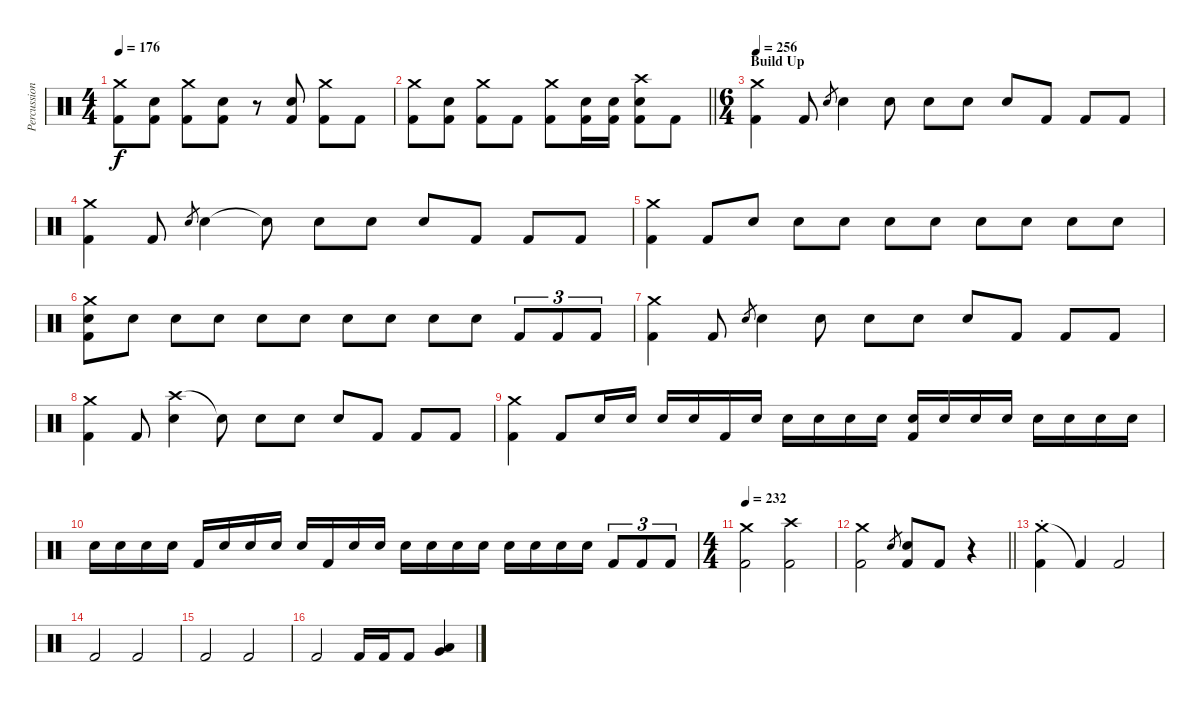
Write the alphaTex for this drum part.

\track ("Percussion" "Percussion") {instrument percussion}
\staff {score}
\articulation defaults
\ts (4 4)
\tempo 176
\clef neutral
\ks c
("Crash medium (hit)" "Kick (hit) 2").8{dy f} ("Electric Snare (hit)" "Kick (hit) 2").8 ("Crash medium (hit)" "Kick (hit) 2").8 ("Electric Snare (hit)" "Kick (hit) 2").8 r.8 ("Electric Snare (hit)" "Kick (hit) 2").8 ("Crash medium (hit)" "Kick (hit) 2").8 "Kick (hit) 2".8 |
\barLineRight lightlight
("Crash medium (hit)" "Kick (hit) 2").8 ("Electric Snare (hit)" "Kick (hit) 2").8 ("Crash medium (hit)" "Kick (hit) 2").8 "Kick (hit) 2".8 ("Crash medium (hit)" "Kick (hit) 2").8 ("Electric Snare (hit)" "Kick (hit) 2").16 ("Electric Snare (hit)" "Kick (hit) 2").16 ("Crash high (hit)" "Electric Snare (hit)" "Kick (hit) 2").8 "Kick (hit) 2".8 |
\ts (6 4)
\section ("" "Build Up")
\tempo 256
("Crash medium (hit)" "Kick (hit) 2").4 "Kick (hit) 2".8 "Electric Snare (hit)".8{gr} "Electric Snare (hit)".4 "Electric Snare (hit)".8 "Electric Snare (hit)".8 "Electric Snare (hit)".8 "Electric Snare (hit)".8 "Kick (hit) 2".8 "Kick (hit) 2".8 "Kick (hit) 2".8 |
("Crash medium (hit)" "Kick (hit) 2").4 "Kick (hit) 2".8 "Electric Snare (hit)".8{gr} "Electric Snare (hit)".4 "Electric Snare (hit)"{t}.8 "Electric Snare (hit)".8 "Electric Snare (hit)".8 "Electric Snare (hit)".8 "Kick (hit) 2".8 "Kick (hit) 2".8 "Kick (hit) 2".8 |
("Crash medium (hit)" "Kick (hit) 2").4 "Kick (hit) 2".8 "Electric Snare (hit)".8 "Electric Snare (hit)".8 "Electric Snare (hit)".8 "Electric Snare (hit)".8 "Electric Snare (hit)".8 "Electric Snare (hit)".8 "Electric Snare (hit)".8 "Electric Snare (hit)".8 "Electric Snare (hit)".8 |
("Crash medium (hit)" "Electric Snare (hit)" "Kick (hit) 2").8 "Electric Snare (hit)".8 "Electric Snare (hit)".8 "Electric Snare (hit)".8 "Electric Snare (hit)".8 "Electric Snare (hit)".8 "Electric Snare (hit)".8 "Electric Snare (hit)".8 "Electric Snare (hit)".8 "Electric Snare (hit)".8 "Kick (hit) 2".8{tu (3 2)} "Kick (hit) 2".8{tu (3 2)} "Kick (hit) 2".8{tu (3 2)} |
("Crash medium (hit)" "Kick (hit) 2").4 "Kick (hit) 2".8 "Electric Snare (hit)".8{gr} "Electric Snare (hit)".4 "Electric Snare (hit)".8 "Electric Snare (hit)".8 "Electric Snare (hit)".8 "Electric Snare (hit)".8 "Kick (hit) 2".8 "Kick (hit) 2".8 "Kick (hit) 2".8 |
("Crash medium (hit)" "Kick (hit) 2").4 "Kick (hit) 2".8 ("Crash high (hit)" "Electric Snare (hit)").4 "Electric Snare (hit)"{t}.8 "Electric Snare (hit)".8 "Electric Snare (hit)".8 "Electric Snare (hit)".8 "Kick (hit) 2".8 "Kick (hit) 2".8 "Kick (hit) 2".8 |
("Crash medium (hit)" "Kick (hit) 2").4 "Kick (hit) 2".8 "Electric Snare (hit)".16 "Electric Snare (hit)".16 "Electric Snare (hit)".16 "Electric Snare (hit)".16 "Kick (hit) 2".16 "Electric Snare (hit)".16 "Electric Snare (hit)".16 "Electric Snare (hit)".16 "Electric Snare (hit)".16 "Electric Snare (hit)".16 ("Electric Snare (hit)" "Kick (hit) 2").16 "Electric Snare (hit)".16 "Electric Snare (hit)".16 "Electric Snare (hit)".16 "Electric Snare (hit)".16 "Electric Snare (hit)".16 "Electric Snare (hit)".16 "Electric Snare (hit)".16 |
"Electric Snare (hit)".16 "Electric Snare (hit)".16 "Electric Snare (hit)".16 "Electric Snare (hit)".16 "Kick (hit) 2".16 "Electric Snare (hit)".16 "Electric Snare (hit)".16 "Electric Snare (hit)".16 "Electric Snare (hit)".16 "Kick (hit) 2".16 "Electric Snare (hit)".16 "Electric Snare (hit)".16 "Electric Snare (hit)".16 "Electric Snare (hit)".16 "Electric Snare (hit)".16 "Electric Snare (hit)".16 "Electric Snare (hit)".16 "Electric Snare (hit)".16 "Electric Snare (hit)".16 "Electric Snare (hit)".16 "Kick (hit) 2".8{tu (3 2)} "Kick (hit) 2".8{tu (3 2)} "Kick (hit) 2".8{tu (3 2)} |
\ts (4 4)
\tempo 232
("Crash medium (hit)" "Kick (hit) 2").2 ("Crash high (hit)" "Kick (hit) 2").2 |
\barLineRight lightlight
("Crash medium (hit)" "Kick (hit) 2").2 "Electric Snare (hit)".8{gr} ("Electric Snare (hit)" "Kick (hit) 2").8 "Kick (hit) 2".8 r.4 |
\section ("" "")
("Crash medium (hit)"{st} "Kick (hit) 2").4 "Kick (hit) 2"{t}.4{volume 0} "Kick (hit) 2".2{volume 14} |
"Kick (hit) 2".2 "Kick (hit) 2".2 |
"Kick (hit) 2".2 "Kick (hit) 2".2 |
"Kick (hit) 2".2 "Kick (hit) 2".16 "Kick (hit) 2".16 "Kick (hit) 2".8 ("Very Low Tom (hit)" "Low Floor Tom (hit)").4
